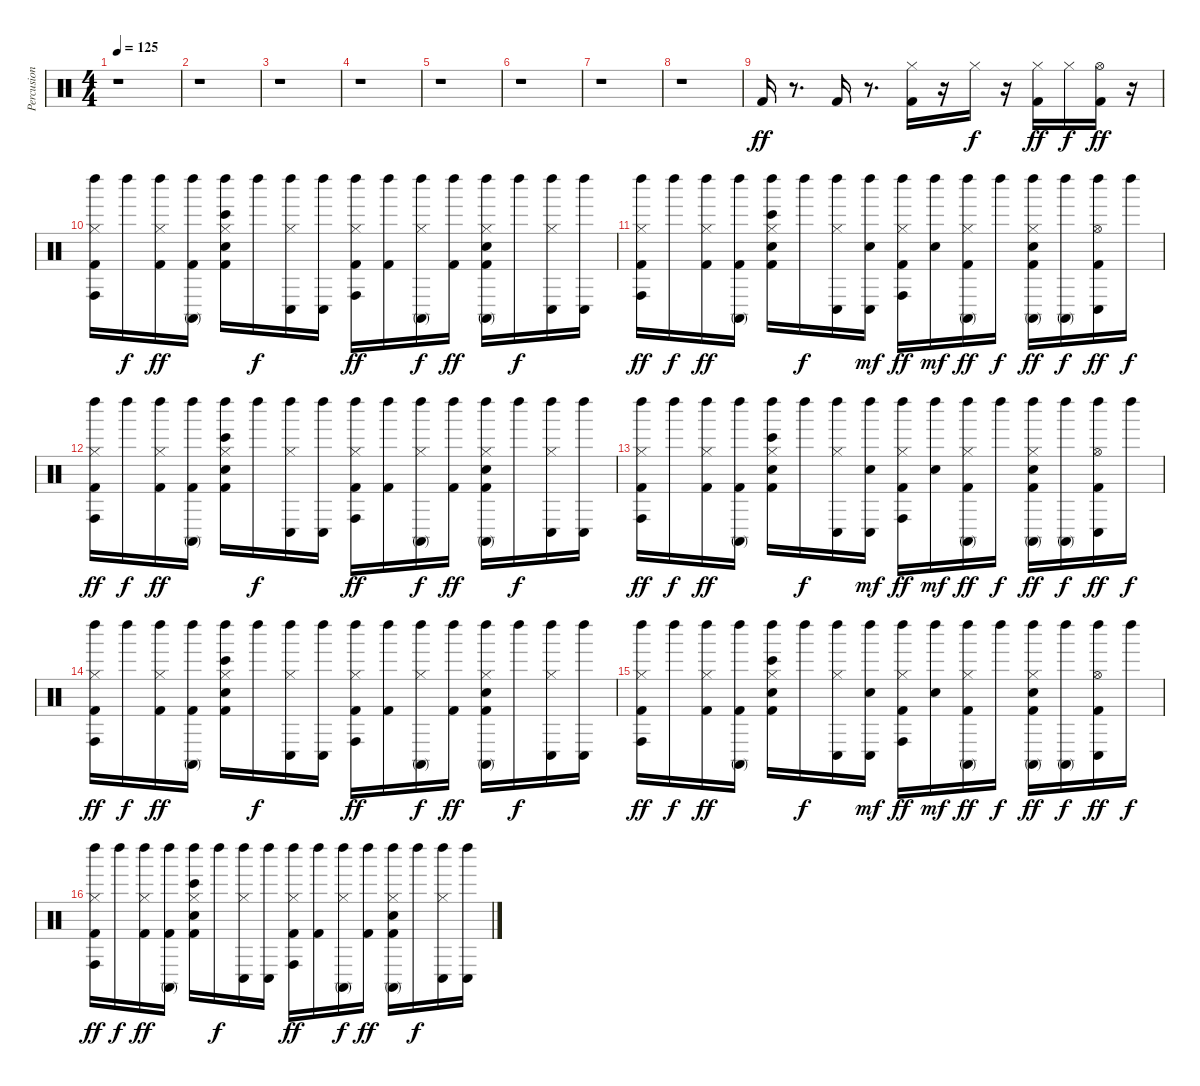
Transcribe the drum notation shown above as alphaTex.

\track ("Percusion" "Percusion") {instrument percussion}
\staff {score}
\articulation defaults
\ts (4 4)
\tempo 125
\clef neutral
\ks c
r.1{dy f} |
r.1 |
r.1 |
r.1 |
r.1 |
r.1 |
r.1 |
r.1 |
"Kick (hit) 2".16{dy ff} r.8{d} "Kick (hit) 2".16 r.8{d} ("Kick (hit) 2" "Hi-Hat (closed)").16 r.16 "Hi-Hat (closed)".16{dy f} r.16 ("Hi-Hat (closed)" "Kick (hit) 2").16{dy ff} "Hi-Hat (closed)".16{dy f} ("Hi-Hat (open)" "Kick (hit) 2").16{dy ff} r.16 |
("Hi-Hat (closed)" "Left Maraca (hit)" "Conga high (hit)" "Kick (hit) 2").16 "Left Maraca (hit)".16{dy f} ("Left Maraca (hit)" "Hi-Hat (closed)" "Kick (hit) 2").16{dy ff} ("Left Maraca (hit)" "Conga high (mute)" "Kick (hit) 2").16 ("Electric Snare (hit)" "Left Maraca (hit)" "Bongo High (hit)" "Hi-Hat (closed)" "Kick (hit) 2").16 "Left Maraca (hit)".16{dy f} ("Left Maraca (hit)" "Conga low (hit)" "Hi-Hat (closed)").16 ("Conga low (hit)" "Left Maraca (hit)").16 ("Left Maraca (hit)" "Conga high (hit)" "Hi-Hat (closed)" "Kick (hit) 2").16{dy ff} ("Left Maraca (hit)" "Kick (hit) 2").16 ("Left Maraca (hit)" "Conga high (mute)" "Hi-Hat (closed)").16{dy f} ("Left Maraca (hit)" "Kick (hit) 2").16{dy ff} ("Electric Snare (hit)" "Left Maraca (hit)" "Conga high (mute)" "Hi-Hat (closed)" "Kick (hit) 2").16 "Left Maraca (hit)".16{dy f} ("Left Maraca (hit)" "Conga low (hit)" "Hi-Hat (closed)").16 ("Conga low (hit)" "Left Maraca (hit)").16 |
("Left Maraca (hit)" "Conga high (hit)" "Hi-Hat (closed)" "Kick (hit) 2").16{dy ff} "Left Maraca (hit)".16{dy f} ("Left Maraca (hit)" "Hi-Hat (closed)" "Kick (hit) 2").16{dy ff} ("Left Maraca (hit)" "Conga high (mute)" "Kick (hit) 2").16 ("Electric Snare (hit)" "Left Maraca (hit)" "Bongo High (hit)" "Hi-Hat (closed)" "Kick (hit) 2").16 "Left Maraca (hit)".16{dy f} ("Left Maraca (hit)" "Conga low (hit)" "Hi-Hat (closed)").16 ("Conga low (hit)" "Left Maraca (hit)" "Electric Snare (hit)").16{dy mf} ("Left Maraca (hit)" "Conga high (hit)" "Hi-Hat (closed)" "Kick (hit) 2").16{dy ff} ("Electric Snare (hit)" "Left Maraca (hit)").16{dy mf} ("Left Maraca (hit)" "Conga high (mute)" "Hi-Hat (closed)" "Kick (hit) 2").16{dy ff} "Left Maraca (hit)".16{dy f} ("Left Maraca (hit)" "Conga high (mute)" "Hi-Hat (closed)" "Electric Snare (hit)" "Kick (hit) 2").16{dy ff} ("Left Maraca (hit)" "Conga high (mute)").16{dy f} ("Conga low (hit)" "Left Maraca (hit)" "Hi-Hat (open)" "Kick (hit) 2").16{dy ff} "Left Maraca (hit)".16{dy f} |
("Hi-Hat (closed)" "Left Maraca (hit)" "Conga high (hit)" "Kick (hit) 2").16{dy ff} "Left Maraca (hit)".16{dy f} ("Left Maraca (hit)" "Hi-Hat (closed)" "Kick (hit) 2").16{dy ff} ("Left Maraca (hit)" "Conga high (mute)" "Kick (hit) 2").16 ("Electric Snare (hit)" "Left Maraca (hit)" "Bongo High (hit)" "Hi-Hat (closed)" "Kick (hit) 2").16 "Left Maraca (hit)".16{dy f} ("Left Maraca (hit)" "Conga low (hit)" "Hi-Hat (closed)").16 ("Conga low (hit)" "Left Maraca (hit)").16 ("Left Maraca (hit)" "Conga high (hit)" "Hi-Hat (closed)" "Kick (hit) 2").16{dy ff} ("Left Maraca (hit)" "Kick (hit) 2").16 ("Left Maraca (hit)" "Conga high (mute)" "Hi-Hat (closed)").16{dy f} ("Left Maraca (hit)" "Kick (hit) 2").16{dy ff} ("Electric Snare (hit)" "Left Maraca (hit)" "Conga high (mute)" "Hi-Hat (closed)" "Kick (hit) 2").16 "Left Maraca (hit)".16{dy f} ("Left Maraca (hit)" "Conga low (hit)" "Hi-Hat (closed)").16 ("Conga low (hit)" "Left Maraca (hit)").16 |
("Left Maraca (hit)" "Conga high (hit)" "Hi-Hat (closed)" "Kick (hit) 2").16{dy ff} "Left Maraca (hit)".16{dy f} ("Left Maraca (hit)" "Hi-Hat (closed)" "Kick (hit) 2").16{dy ff} ("Left Maraca (hit)" "Conga high (mute)" "Kick (hit) 2").16 ("Electric Snare (hit)" "Left Maraca (hit)" "Bongo High (hit)" "Hi-Hat (closed)" "Kick (hit) 2").16 "Left Maraca (hit)".16{dy f} ("Left Maraca (hit)" "Conga low (hit)" "Hi-Hat (closed)").16 ("Conga low (hit)" "Left Maraca (hit)" "Electric Snare (hit)").16{dy mf} ("Left Maraca (hit)" "Conga high (hit)" "Hi-Hat (closed)" "Kick (hit) 2").16{dy ff} ("Electric Snare (hit)" "Left Maraca (hit)").16{dy mf} ("Left Maraca (hit)" "Conga high (mute)" "Hi-Hat (closed)" "Kick (hit) 2").16{dy ff} "Left Maraca (hit)".16{dy f} ("Left Maraca (hit)" "Conga high (mute)" "Hi-Hat (closed)" "Electric Snare (hit)" "Kick (hit) 2").16{dy ff} ("Left Maraca (hit)" "Conga high (mute)").16{dy f} ("Conga low (hit)" "Left Maraca (hit)" "Hi-Hat (open)" "Kick (hit) 2").16{dy ff} "Left Maraca (hit)".16{dy f} |
("Hi-Hat (closed)" "Left Maraca (hit)" "Conga high (hit)" "Kick (hit) 2").16{dy ff} "Left Maraca (hit)".16{dy f} ("Left Maraca (hit)" "Hi-Hat (closed)" "Kick (hit) 2").16{dy ff} ("Left Maraca (hit)" "Conga high (mute)" "Kick (hit) 2").16 ("Electric Snare (hit)" "Left Maraca (hit)" "Bongo High (hit)" "Hi-Hat (closed)" "Kick (hit) 2").16 "Left Maraca (hit)".16{dy f} ("Left Maraca (hit)" "Conga low (hit)" "Hi-Hat (closed)").16 ("Conga low (hit)" "Left Maraca (hit)").16 ("Left Maraca (hit)" "Conga high (hit)" "Hi-Hat (closed)" "Kick (hit) 2").16{dy ff} ("Left Maraca (hit)" "Kick (hit) 2").16 ("Left Maraca (hit)" "Conga high (mute)" "Hi-Hat (closed)").16{dy f} ("Left Maraca (hit)" "Kick (hit) 2").16{dy ff} ("Electric Snare (hit)" "Left Maraca (hit)" "Conga high (mute)" "Hi-Hat (closed)" "Kick (hit) 2").16 "Left Maraca (hit)".16{dy f} ("Left Maraca (hit)" "Conga low (hit)" "Hi-Hat (closed)").16 ("Conga low (hit)" "Left Maraca (hit)").16 |
("Left Maraca (hit)" "Conga high (hit)" "Hi-Hat (closed)" "Kick (hit) 2").16{dy ff} "Left Maraca (hit)".16{dy f} ("Left Maraca (hit)" "Hi-Hat (closed)" "Kick (hit) 2").16{dy ff} ("Left Maraca (hit)" "Conga high (mute)" "Kick (hit) 2").16 ("Electric Snare (hit)" "Left Maraca (hit)" "Bongo High (hit)" "Hi-Hat (closed)" "Kick (hit) 2").16 "Left Maraca (hit)".16{dy f} ("Left Maraca (hit)" "Conga low (hit)" "Hi-Hat (closed)").16 ("Conga low (hit)" "Left Maraca (hit)" "Electric Snare (hit)").16{dy mf} ("Left Maraca (hit)" "Conga high (hit)" "Hi-Hat (closed)" "Kick (hit) 2").16{dy ff} ("Electric Snare (hit)" "Left Maraca (hit)").16{dy mf} ("Left Maraca (hit)" "Conga high (mute)" "Hi-Hat (closed)" "Kick (hit) 2").16{dy ff} "Left Maraca (hit)".16{dy f} ("Left Maraca (hit)" "Conga high (mute)" "Hi-Hat (closed)" "Electric Snare (hit)" "Kick (hit) 2").16{dy ff} ("Left Maraca (hit)" "Conga high (mute)").16{dy f} ("Conga low (hit)" "Left Maraca (hit)" "Hi-Hat (open)" "Kick (hit) 2").16{dy ff} "Left Maraca (hit)".16{dy f} |
("Left Maraca (hit)" "Hi-Hat (closed)" "Conga high (hit)" "Kick (hit) 2").16{dy ff} "Left Maraca (hit)".16{dy f} ("Left Maraca (hit)" "Hi-Hat (closed)" "Kick (hit) 2").16{dy ff} ("Left Maraca (hit)" "Conga high (mute)" "Kick (hit) 2").16 ("Electric Snare (hit)" "Left Maraca (hit)" "Hi-Hat (closed)" "Bongo High (hit)" "Kick (hit) 2").16 "Left Maraca (hit)".16{dy f} ("Left Maraca (hit)" "Hi-Hat (closed)" "Conga low (hit)").16 ("Conga low (hit)" "Left Maraca (hit)").16 ("Left Maraca (hit)" "Hi-Hat (closed)" "Conga high (hit)" "Kick (hit) 2").16{dy ff} ("Left Maraca (hit)" "Kick (hit) 2").16 ("Left Maraca (hit)" "Hi-Hat (closed)" "Conga high (mute)").16{dy f} ("Left Maraca (hit)" "Kick (hit) 2").16{dy ff} ("Electric Snare (hit)" "Left Maraca (hit)" "Hi-Hat (closed)" "Conga high (mute)" "Kick (hit) 2").16 "Left Maraca (hit)".16{dy f} ("Left Maraca (hit)" "Hi-Hat (closed)" "Conga low (hit)").16 ("Conga low (hit)" "Left Maraca (hit)").16
